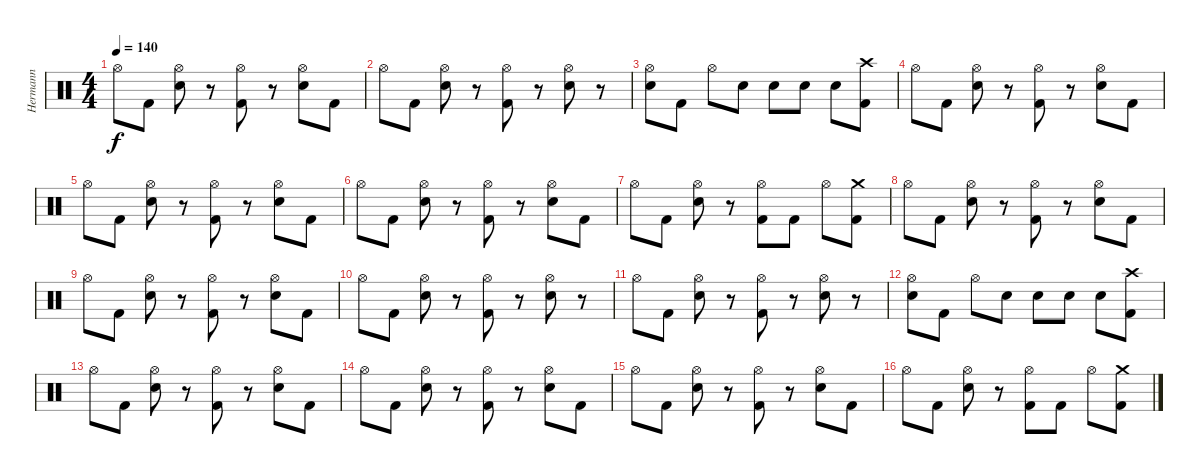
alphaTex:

\track ("Hermann" "Hermann") {instrument percussion}
\staff {score}
\articulation defaults
\ts (4 4)
\tempo 140
\clef neutral
\ks c "Hi-Hat (open)".8{dy f} "Kick (hit) 2".8
("Hi-Hat (open)" "Electric Snare (hit)").8 r.8 ("Hi-Hat (open)" "Kick (hit) 2").8 r.8 ("Hi-Hat (open)" "Electric Snare (hit)").8 "Kick (hit) 2".8 |
"Hi-Hat (open)".8 "Kick (hit) 2".8 ("Hi-Hat (open)" "Electric Snare (hit)").8 r.8 ("Hi-Hat (open)" "Kick (hit) 2").8 r.8 ("Hi-Hat (open)" "Electric Snare (hit)").8 r.8 |
("Hi-Hat (open)" "Electric Snare (hit)").8 "Kick (hit) 2".8 "Hi-Hat (open)".8 "Electric Snare (hit)".8 "Electric Snare (hit)".8 "Electric Snare (hit)".8 "Electric Snare (hit)".8 ("Crash high (hit)" "Kick (hit) 2").8 |
"Hi-Hat (open)".8 "Kick (hit) 2".8 ("Hi-Hat (open)" "Electric Snare (hit)").8 r.8 ("Hi-Hat (open)" "Kick (hit) 2").8 r.8 ("Hi-Hat (open)" "Electric Snare (hit)").8 "Kick (hit) 2".8 |
"Hi-Hat (open)".8 "Kick (hit) 2".8 ("Hi-Hat (open)" "Electric Snare (hit)").8 r.8 ("Hi-Hat (open)" "Kick (hit) 2").8 r.8 ("Hi-Hat (open)" "Electric Snare (hit)").8 "Kick (hit) 2".8 |
"Hi-Hat (open)".8 "Kick (hit) 2".8 ("Hi-Hat (open)" "Electric Snare (hit)").8 r.8 ("Hi-Hat (open)" "Kick (hit) 2").8 r.8 ("Hi-Hat (open)" "Electric Snare (hit)").8 "Kick (hit) 2".8 |
"Hi-Hat (open)".8 "Kick (hit) 2".8 ("Hi-Hat (open)" "Electric Snare (hit)").8 r.8 ("Hi-Hat (open)" "Kick (hit) 2").8 "Kick (hit) 2".8 "Hi-Hat (open)".8 ("Crash medium (hit)" "Kick (hit) 2").8 |
"Hi-Hat (open)".8 "Kick (hit) 2".8 ("Hi-Hat (open)" "Electric Snare (hit)").8 r.8 ("Hi-Hat (open)" "Kick (hit) 2").8 r.8 ("Hi-Hat (open)" "Electric Snare (hit)").8 "Kick (hit) 2".8 |
"Hi-Hat (open)".8 "Kick (hit) 2".8 ("Hi-Hat (open)" "Electric Snare (hit)").8 r.8 ("Hi-Hat (open)" "Kick (hit) 2").8 r.8 ("Hi-Hat (open)" "Electric Snare (hit)").8 "Kick (hit) 2".8 |
"Hi-Hat (open)".8 "Kick (hit) 2".8 ("Hi-Hat (open)" "Electric Snare (hit)").8 r.8 ("Hi-Hat (open)" "Kick (hit) 2").8 r.8 ("Hi-Hat (open)" "Electric Snare (hit)").8 r.8 |
"Hi-Hat (open)".8 "Kick (hit) 2".8 ("Hi-Hat (open)" "Electric Snare (hit)").8 r.8 ("Hi-Hat (open)" "Kick (hit) 2").8 r.8 ("Hi-Hat (open)" "Electric Snare (hit)").8 r.8 |
("Hi-Hat (open)" "Electric Snare (hit)").8 "Kick (hit) 2".8 "Hi-Hat (open)".8 "Electric Snare (hit)".8 "Electric Snare (hit)".8 "Electric Snare (hit)".8 "Electric Snare (hit)".8 ("Crash high (hit)" "Kick (hit) 2").8 |
"Hi-Hat (open)".8 "Kick (hit) 2".8 ("Hi-Hat (open)" "Electric Snare (hit)").8 r.8 ("Hi-Hat (open)" "Kick (hit) 2").8 r.8 ("Hi-Hat (open)" "Electric Snare (hit)").8 "Kick (hit) 2".8 |
"Hi-Hat (open)".8 "Kick (hit) 2".8 ("Hi-Hat (open)" "Electric Snare (hit)").8 r.8 ("Hi-Hat (open)" "Kick (hit) 2").8 r.8 ("Hi-Hat (open)" "Electric Snare (hit)").8 "Kick (hit) 2".8 |
"Hi-Hat (open)".8 "Kick (hit) 2".8 ("Hi-Hat (open)" "Electric Snare (hit)").8 r.8 ("Hi-Hat (open)" "Kick (hit) 2").8 r.8 ("Hi-Hat (open)" "Electric Snare (hit)").8 "Kick (hit) 2".8 |
"Hi-Hat (open)".8 "Kick (hit) 2".8 ("Hi-Hat (open)" "Electric Snare (hit)").8 r.8 ("Hi-Hat (open)" "Kick (hit) 2").8 "Kick (hit) 2".8 "Hi-Hat (open)".8 ("Crash medium (hit)" "Kick (hit) 2").8
